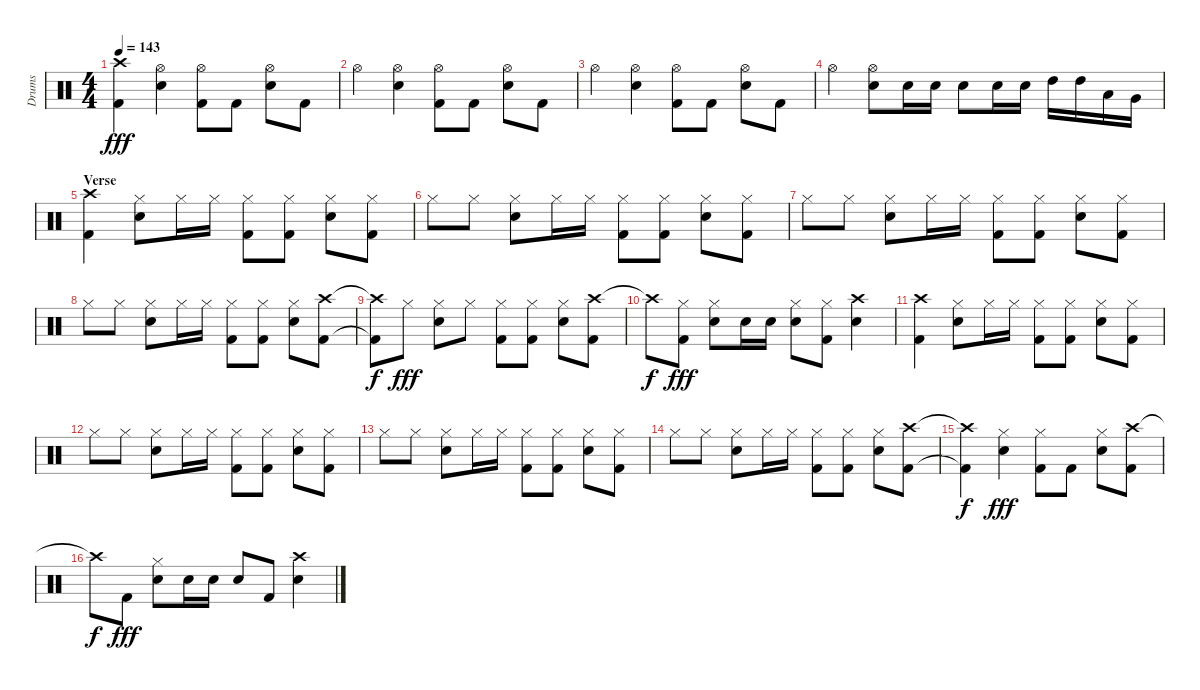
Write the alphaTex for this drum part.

\track ("Drums" "Drums") {instrument percussion}
\staff {score}
\articulation defaults
\ts (4 4)
\tempo 143
\clef neutral
\ks c
("Crash high (hit)" "Kick (hit) 2").4{dy fff} ("Hi-Hat (open)" "Snare (hit) 2").4 ("Hi-Hat (open)" "Kick (hit) 2").8 "Kick (hit) 2".8 ("Hi-Hat (open)" "Snare (hit) 2").8 "Kick (hit) 2".8 |
"Hi-Hat (open)".4 ("Hi-Hat (open)" "Snare (hit) 2").4 ("Hi-Hat (open)" "Kick (hit) 2").8 "Kick (hit) 2".8 ("Hi-Hat (open)" "Snare (hit) 2").8 "Kick (hit) 2".8 |
"Hi-Hat (open)".4 ("Hi-Hat (open)" "Snare (hit) 2").4 ("Hi-Hat (open)" "Kick (hit) 2").8 "Kick (hit) 2".8 ("Hi-Hat (open)" "Snare (hit) 2").8 "Kick (hit) 2".8 |
"Hi-Hat (open)".4 ("Hi-Hat (open)" "Snare (hit) 2").8 "Snare (hit) 2".16 "Snare (hit) 2".16 "Snare (hit) 2".8 "Snare (hit) 2".16 "Snare (hit) 2".16 "High Tom (hit)".16 "High Tom (hit)".16 "Low Tom (hit)".16 "Very Low Tom (hit)".16 |
\section ("" "Verse")
("Crash high (hit)" "Kick (hit) 2").4 ("Hi-Hat (closed)" "Snare (hit) 2").8 "Hi-Hat (closed)".16 "Hi-Hat (closed)".16 ("Hi-Hat (closed)" "Kick (hit) 2").8 ("Hi-Hat (closed)" "Kick (hit) 2").8 ("Hi-Hat (closed)" "Snare (hit) 2").8 ("Hi-Hat (closed)" "Kick (hit) 2").8 |
"Hi-Hat (closed)".8 "Hi-Hat (closed)".8 ("Hi-Hat (closed)" "Snare (hit) 2").8 "Hi-Hat (closed)".16 "Hi-Hat (closed)".16 ("Hi-Hat (closed)" "Kick (hit) 2").8 ("Hi-Hat (closed)" "Kick (hit) 2").8 ("Hi-Hat (closed)" "Snare (hit) 2").8 ("Hi-Hat (closed)" "Kick (hit) 2").8 |
"Hi-Hat (closed)".8 "Hi-Hat (closed)".8 ("Hi-Hat (closed)" "Snare (hit) 2").8 "Hi-Hat (closed)".16 "Hi-Hat (closed)".16 ("Hi-Hat (closed)" "Kick (hit) 2").8 ("Hi-Hat (closed)" "Kick (hit) 2").8 ("Hi-Hat (closed)" "Snare (hit) 2").8 ("Hi-Hat (closed)" "Kick (hit) 2").8 |
"Hi-Hat (closed)".8 "Hi-Hat (closed)".8 ("Hi-Hat (closed)" "Snare (hit) 2").8 "Hi-Hat (closed)".16 "Hi-Hat (closed)".16 ("Hi-Hat (closed)" "Kick (hit) 2").8 ("Hi-Hat (closed)" "Kick (hit) 2").8 ("Hi-Hat (closed)" "Snare (hit) 2").8 ("Crash high (hit)" "Kick (hit) 2").8 |
("Crash high (hit)"{t} "Kick (hit) 2"{t}).8{dy f} "Hi-Hat (closed)".8{dy fff} ("Hi-Hat (closed)" "Snare (hit) 2").8 "Hi-Hat (closed)".8 ("Hi-Hat (closed)" "Kick (hit) 2").8 ("Hi-Hat (closed)" "Kick (hit) 2").8 ("Hi-Hat (closed)" "Snare (hit) 2").8 ("Crash high (hit)" "Kick (hit) 2").8 |
"Crash high (hit)"{t}.8{dy f} ("Hi-Hat (closed)" "Kick (hit) 2").8{dy fff} ("Hi-Hat (closed)" "Snare (hit) 2").8 "Snare (hit) 2".16 "Snare (hit) 2".16 ("Hi-Hat (closed)" "Snare (hit) 2").8 ("Hi-Hat (closed)" "Kick (hit) 2").8 ("Crash high (hit)" "Snare (hit) 2").4 |
("Crash high (hit)" "Kick (hit) 2").4 ("Hi-Hat (closed)" "Snare (hit) 2").8 "Hi-Hat (closed)".16 "Hi-Hat (closed)".16 ("Hi-Hat (closed)" "Kick (hit) 2").8 ("Hi-Hat (closed)" "Kick (hit) 2").8 ("Hi-Hat (closed)" "Snare (hit) 2").8 ("Hi-Hat (closed)" "Kick (hit) 2").8 |
"Hi-Hat (closed)".8 "Hi-Hat (closed)".8 ("Hi-Hat (closed)" "Snare (hit) 2").8 "Hi-Hat (closed)".16 "Hi-Hat (closed)".16 ("Hi-Hat (closed)" "Kick (hit) 2").8 ("Hi-Hat (closed)" "Kick (hit) 2").8 ("Hi-Hat (closed)" "Snare (hit) 2").8 ("Hi-Hat (closed)" "Kick (hit) 2").8 |
"Hi-Hat (closed)".8 "Hi-Hat (closed)".8 ("Hi-Hat (closed)" "Snare (hit) 2").8 "Hi-Hat (closed)".16 "Hi-Hat (closed)".16 ("Hi-Hat (closed)" "Kick (hit) 2").8 ("Hi-Hat (closed)" "Kick (hit) 2").8 ("Hi-Hat (closed)" "Snare (hit) 2").8 ("Hi-Hat (closed)" "Kick (hit) 2").8 |
"Hi-Hat (closed)".8 "Hi-Hat (closed)".8 ("Hi-Hat (closed)" "Snare (hit) 2").8 "Hi-Hat (closed)".16 "Hi-Hat (closed)".16 ("Hi-Hat (closed)" "Kick (hit) 2").8 ("Hi-Hat (closed)" "Kick (hit) 2").8 ("Hi-Hat (closed)" "Snare (hit) 2").8 ("Crash high (hit)" "Kick (hit) 2").8 |
("Crash high (hit)"{t} "Kick (hit) 2"{t}).4{dy f} ("Hi-Hat (closed)" "Snare (hit) 2").4{dy fff} ("Hi-Hat (closed)" "Kick (hit) 2").8 "Kick (hit) 2".8 ("Hi-Hat (closed)" "Snare (hit) 2").8 ("Crash high (hit)" "Kick (hit) 2").8 |
"Crash high (hit)"{t}.8{dy f} "Kick (hit) 2".8{dy fff} ("Hi-Hat (closed)" "Snare (hit) 2").8 "Snare (hit) 2".16 "Snare (hit) 2".16 "Snare (hit) 2".8 "Kick (hit) 2".8 ("Crash high (hit)" "Snare (hit) 2").4
